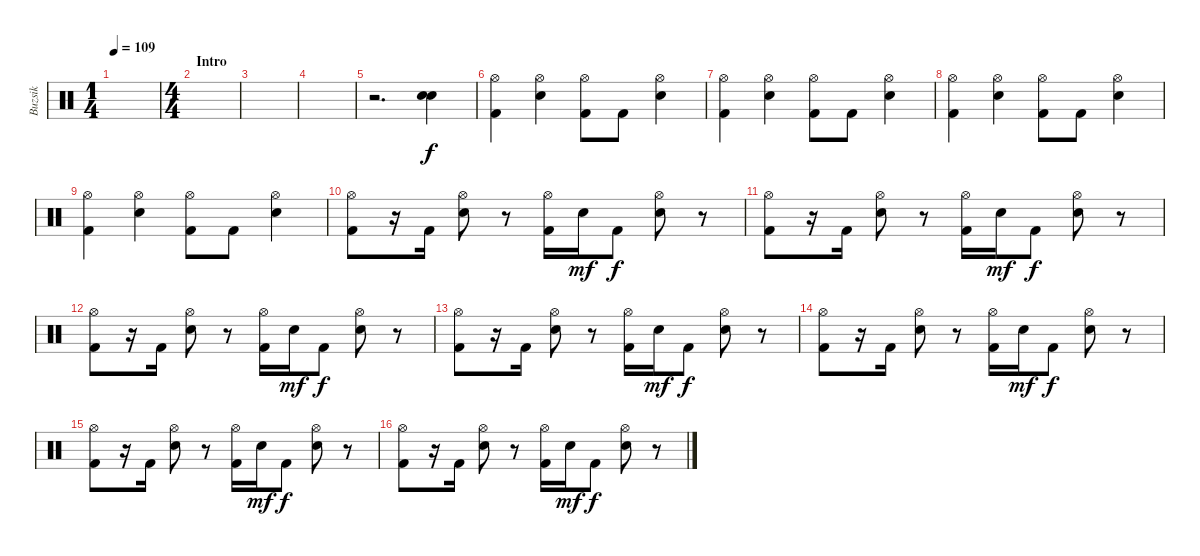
\track ("Buzsik" "Buzsik") {instrument percussion}
\staff {score}
\articulation defaults
\ts (1 4)
\tempo 109
\clef neutral
\ks c
|
\ts (4 4)
\section ("" "Intro")
|
|
|
r.2{d} ("Electric Snare (hit)" "Electric Snare (hit)").4 |
\section ("" "")
("Hi-Hat (open)" "Kick (hit) 2").4 ("Hi-Hat (open)" "Electric Snare (hit)").4 ("Hi-Hat (open)" "Kick (hit) 2").8 "Kick (hit) 2".8 ("Hi-Hat (open)" "Electric Snare (hit)").4 |
("Hi-Hat (open)" "Kick (hit) 2").4 ("Hi-Hat (open)" "Electric Snare (hit)").4 ("Hi-Hat (open)" "Kick (hit) 2").8 "Kick (hit) 2".8 ("Hi-Hat (open)" "Electric Snare (hit)").4 |
("Hi-Hat (open)" "Kick (hit) 2").4 ("Hi-Hat (open)" "Electric Snare (hit)").4 ("Hi-Hat (open)" "Kick (hit) 2").8 "Kick (hit) 2".8 ("Hi-Hat (open)" "Electric Snare (hit)").4 |
("Hi-Hat (open)" "Kick (hit) 2").4 ("Hi-Hat (open)" "Electric Snare (hit)").4 ("Hi-Hat (open)" "Kick (hit) 2").8 "Kick (hit) 2".8 ("Hi-Hat (open)" "Electric Snare (hit)").4 |
("Hi-Hat (open)" "Kick (hit) 2").8 r.16 "Kick (hit) 2".16 ("Hi-Hat (open)" "Electric Snare (hit)").8 r.8 ("Hi-Hat (open)" "Kick (hit) 2").16 "Electric Snare (hit)".16{dy mf} "Kick (hit) 2".8{dy f} ("Hi-Hat (open)" "Electric Snare (hit)").8 r.8 |
("Hi-Hat (open)" "Kick (hit) 2").8 r.16 "Kick (hit) 2".16 ("Hi-Hat (open)" "Electric Snare (hit)").8 r.8 ("Hi-Hat (open)" "Kick (hit) 2").16 "Electric Snare (hit)".16{dy mf} "Kick (hit) 2".8{dy f} ("Hi-Hat (open)" "Electric Snare (hit)").8 r.8 |
("Hi-Hat (open)" "Kick (hit) 2").8 r.16 "Kick (hit) 2".16 ("Hi-Hat (open)" "Electric Snare (hit)").8 r.8 ("Hi-Hat (open)" "Kick (hit) 2").16 "Electric Snare (hit)".16{dy mf} "Kick (hit) 2".8{dy f} ("Hi-Hat (open)" "Electric Snare (hit)").8 r.8 |
("Hi-Hat (open)" "Kick (hit) 2").8 r.16 "Kick (hit) 2".16 ("Hi-Hat (open)" "Electric Snare (hit)").8 r.8 ("Hi-Hat (open)" "Kick (hit) 2").16 "Electric Snare (hit)".16{dy mf} "Kick (hit) 2".8{dy f} ("Hi-Hat (open)" "Electric Snare (hit)").8 r.8 |
("Hi-Hat (open)" "Kick (hit) 2").8 r.16 "Kick (hit) 2".16 ("Hi-Hat (open)" "Electric Snare (hit)").8 r.8 ("Hi-Hat (open)" "Kick (hit) 2").16 "Electric Snare (hit)".16{dy mf} "Kick (hit) 2".8{dy f} ("Hi-Hat (open)" "Electric Snare (hit)").8 r.8 |
("Hi-Hat (open)" "Kick (hit) 2").8 r.16 "Kick (hit) 2".16 ("Hi-Hat (open)" "Electric Snare (hit)").8 r.8 ("Hi-Hat (open)" "Kick (hit) 2").16 "Electric Snare (hit)".16{dy mf} "Kick (hit) 2".8{dy f} ("Hi-Hat (open)" "Electric Snare (hit)").8 r.8 |
("Hi-Hat (open)" "Kick (hit) 2").8 r.16 "Kick (hit) 2".16 ("Hi-Hat (open)" "Electric Snare (hit)").8 r.8 ("Hi-Hat (open)" "Kick (hit) 2").16 "Electric Snare (hit)".16{dy mf} "Kick (hit) 2".8{dy f} ("Hi-Hat (open)" "Electric Snare (hit)").8 r.8
